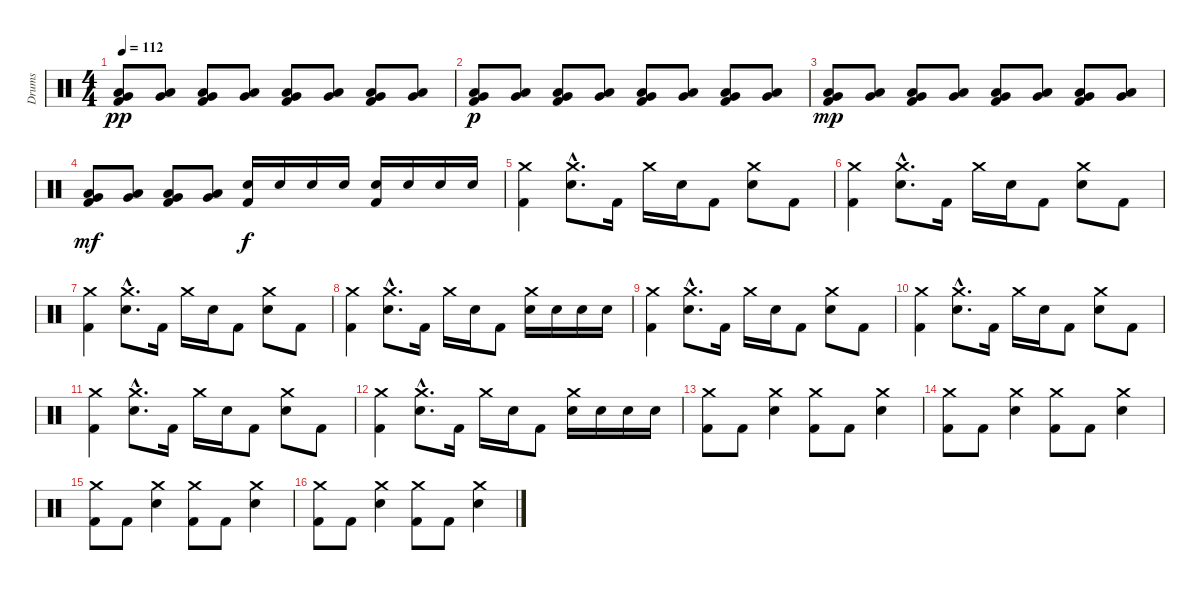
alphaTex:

\track ("Drums" "Drums") {instrument percussion}
\staff {score}
\articulation defaults
\ts (4 4)
\tempo 112
\clef neutral
\ks c
("Very Low Tom (hit)" "Low Tom (hit)" "Kick (hit) 2").8{dy pp} ("Very Low Tom (hit)" "Low Tom (hit)").8 ("Very Low Tom (hit)" "Low Tom (hit)" "Kick (hit) 2").8 ("Very Low Tom (hit)" "Low Tom (hit)").8 ("Very Low Tom (hit)" "Low Tom (hit)" "Kick (hit) 2").8 ("Very Low Tom (hit)" "Low Tom (hit)").8 ("Very Low Tom (hit)" "Low Tom (hit)" "Kick (hit) 2").8 ("Very Low Tom (hit)" "Low Tom (hit)").8 |
("Very Low Tom (hit)" "Low Tom (hit)" "Kick (hit) 2").8{dy p} ("Very Low Tom (hit)" "Low Tom (hit)").8 ("Very Low Tom (hit)" "Low Tom (hit)" "Kick (hit) 2").8 ("Very Low Tom (hit)" "Low Tom (hit)").8 ("Very Low Tom (hit)" "Low Tom (hit)" "Kick (hit) 2").8 ("Very Low Tom (hit)" "Low Tom (hit)").8 ("Very Low Tom (hit)" "Low Tom (hit)" "Kick (hit) 2").8 ("Very Low Tom (hit)" "Low Tom (hit)").8 |
("Very Low Tom (hit)" "Low Tom (hit)" "Kick (hit) 2").8{dy mp} ("Very Low Tom (hit)" "Low Tom (hit)").8 ("Very Low Tom (hit)" "Low Tom (hit)" "Kick (hit) 2").8 ("Very Low Tom (hit)" "Low Tom (hit)").8 ("Very Low Tom (hit)" "Low Tom (hit)" "Kick (hit) 2").8 ("Very Low Tom (hit)" "Low Tom (hit)").8 ("Very Low Tom (hit)" "Low Tom (hit)" "Kick (hit) 2").8 ("Very Low Tom (hit)" "Low Tom (hit)").8 |
("Very Low Tom (hit)" "Low Tom (hit)" "Kick (hit) 2").8{dy mf} ("Very Low Tom (hit)" "Low Tom (hit)").8 ("Very Low Tom (hit)" "Low Tom (hit)" "Kick (hit) 2").8 ("Very Low Tom (hit)" "Low Tom (hit)").8 ("Snare (hit) 2" "Kick (hit) 2").16{dy f} "Snare (hit) 2".16 "Snare (hit) 2".16 "Snare (hit) 2".16 ("Snare (hit) 2" "Kick (hit) 2").16 "Snare (hit) 2".16 "Snare (hit) 2".16 "Snare (hit) 2".16 |
("Crash medium (hit)" "Kick (hit) 2").4 ("Crash medium (hit)"{hac} "Snare (hit) 2"{hac}).8{d} "Kick (hit) 2".16 "Crash medium (hit)".16 "Snare (hit) 2".16 "Kick (hit) 2".8 ("Crash medium (hit)" "Snare (hit) 2").8 "Kick (hit) 2".8 |
("Crash medium (hit)" "Kick (hit) 2").4 ("Crash medium (hit)"{hac} "Snare (hit) 2"{hac}).8{d} "Kick (hit) 2".16 "Crash medium (hit)".16 "Snare (hit) 2".16 "Kick (hit) 2".8 ("Crash medium (hit)" "Snare (hit) 2").8 "Kick (hit) 2".8 |
("Crash medium (hit)" "Kick (hit) 2").4 ("Crash medium (hit)"{hac} "Snare (hit) 2"{hac}).8{d} "Kick (hit) 2".16 "Crash medium (hit)".16 "Snare (hit) 2".16 "Kick (hit) 2".8 ("Crash medium (hit)" "Snare (hit) 2").8 "Kick (hit) 2".8 |
("Crash medium (hit)" "Kick (hit) 2").4 ("Crash medium (hit)"{hac} "Snare (hit) 2"{hac}).8{d} "Kick (hit) 2".16 "Crash medium (hit)".16 "Snare (hit) 2".16 "Kick (hit) 2".8 ("Crash medium (hit)" "Snare (hit) 2").16 "Snare (hit) 2".16 "Snare (hit) 2".16 "Snare (hit) 2".16 |
("Crash medium (hit)" "Kick (hit) 2").4 ("Crash medium (hit)"{hac} "Snare (hit) 2"{hac}).8{d} "Kick (hit) 2".16 "Crash medium (hit)".16 "Snare (hit) 2".16 "Kick (hit) 2".8 ("Crash medium (hit)" "Snare (hit) 2").8 "Kick (hit) 2".8 |
("Crash medium (hit)" "Kick (hit) 2").4 ("Crash medium (hit)"{hac} "Snare (hit) 2"{hac}).8{d} "Kick (hit) 2".16 "Crash medium (hit)".16 "Snare (hit) 2".16 "Kick (hit) 2".8 ("Crash medium (hit)" "Snare (hit) 2").8 "Kick (hit) 2".8 |
("Crash medium (hit)" "Kick (hit) 2").4 ("Crash medium (hit)"{hac} "Snare (hit) 2"{hac}).8{d} "Kick (hit) 2".16 "Crash medium (hit)".16 "Snare (hit) 2".16 "Kick (hit) 2".8 ("Crash medium (hit)" "Snare (hit) 2").8 "Kick (hit) 2".8 |
("Crash medium (hit)" "Kick (hit) 2").4 ("Crash medium (hit)"{hac} "Snare (hit) 2"{hac}).8{d} "Kick (hit) 2".16 "Crash medium (hit)".16 "Snare (hit) 2".16 "Kick (hit) 2".8 ("Crash medium (hit)" "Snare (hit) 2").16 "Snare (hit) 2".16 "Snare (hit) 2".16 "Snare (hit) 2".16 |
("Crash medium (hit)" "Kick (hit) 2").8 "Kick (hit) 2".8 ("Crash medium (hit)" "Snare (hit) 2").4 ("Crash medium (hit)" "Kick (hit) 2").8 "Kick (hit) 2".8 ("Crash medium (hit)" "Snare (hit) 2").4 |
("Crash medium (hit)" "Kick (hit) 2").8 "Kick (hit) 2".8 ("Crash medium (hit)" "Snare (hit) 2").4 ("Crash medium (hit)" "Kick (hit) 2").8 "Kick (hit) 2".8 ("Crash medium (hit)" "Snare (hit) 2").4 |
("Crash medium (hit)" "Kick (hit) 2").8 "Kick (hit) 2".8 ("Crash medium (hit)" "Snare (hit) 2").4 ("Crash medium (hit)" "Kick (hit) 2").8 "Kick (hit) 2".8 ("Crash medium (hit)" "Snare (hit) 2").4 |
("Crash medium (hit)" "Kick (hit) 2").8 "Kick (hit) 2".8 ("Crash medium (hit)" "Snare (hit) 2").4 ("Crash medium (hit)" "Kick (hit) 2").8 "Kick (hit) 2".8 ("Crash medium (hit)" "Snare (hit) 2").4
